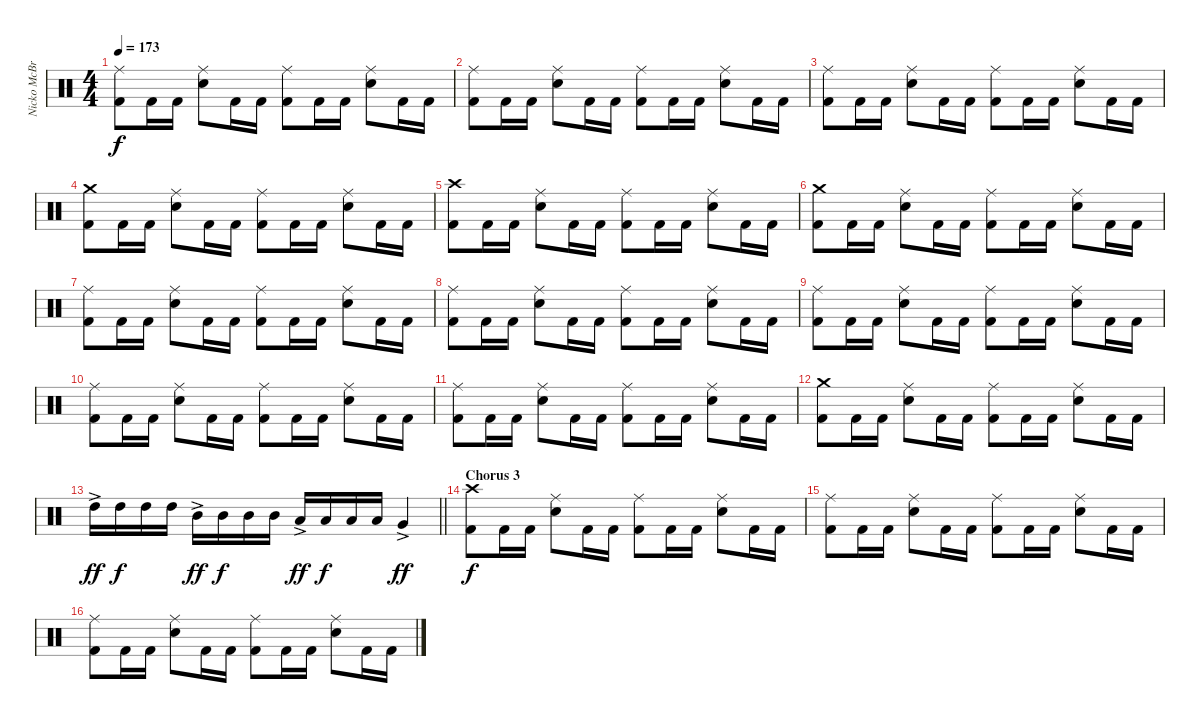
\track ("Nicko McBrain" "Nicko McBr") {instrument percussion}
\staff {score}
\articulation defaults
\ts (4 4)
\tempo 173
\clef neutral
\ks c
("Ride (middle)" "Kick (hit) 2").8{dy f} "Kick (hit) 2".16 "Kick (hit) 2".16 ("Ride (middle)" "Electric Snare (hit)").8 "Kick (hit) 2".16 "Kick (hit) 2".16 ("Ride (middle)" "Kick (hit) 2").8 "Kick (hit) 2".16 "Kick (hit) 2".16 ("Ride (middle)" "Electric Snare (hit)").8 "Kick (hit) 2".16 "Kick (hit) 2".16 |
("Ride (middle)" "Kick (hit) 2").8 "Kick (hit) 2".16 "Kick (hit) 2".16 ("Ride (middle)" "Electric Snare (hit)").8 "Kick (hit) 2".16 "Kick (hit) 2".16 ("Ride (middle)" "Kick (hit) 2").8 "Kick (hit) 2".16 "Kick (hit) 2".16 ("Ride (middle)" "Electric Snare (hit)").8 "Kick (hit) 2".16 "Kick (hit) 2".16 |
("Ride (middle)" "Kick (hit) 2").8 "Kick (hit) 2".16 "Kick (hit) 2".16 ("Ride (middle)" "Electric Snare (hit)").8 "Kick (hit) 2".16 "Kick (hit) 2".16 ("Ride (middle)" "Kick (hit) 2").8 "Kick (hit) 2".16 "Kick (hit) 2".16 ("Ride (middle)" "Electric Snare (hit)").8 "Kick (hit) 2".16 "Kick (hit) 2".16 |
("Crash medium (hit)" "Kick (hit) 2").8 "Kick (hit) 2".16 "Kick (hit) 2".16 ("Ride (middle)" "Electric Snare (hit)").8 "Kick (hit) 2".16 "Kick (hit) 2".16 ("Ride (middle)" "Kick (hit) 2").8 "Kick (hit) 2".16 "Kick (hit) 2".16 ("Ride (middle)" "Electric Snare (hit)").8 "Kick (hit) 2".16 "Kick (hit) 2".16 |
("Crash high (hit)" "Kick (hit) 2").8 "Kick (hit) 2".16 "Kick (hit) 2".16 ("Ride (middle)" "Electric Snare (hit)").8 "Kick (hit) 2".16 "Kick (hit) 2".16 ("Ride (middle)" "Kick (hit) 2").8 "Kick (hit) 2".16 "Kick (hit) 2".16 ("Ride (middle)" "Electric Snare (hit)").8 "Kick (hit) 2".16 "Kick (hit) 2".16 |
("Crash medium (hit)" "Kick (hit) 2").8 "Kick (hit) 2".16 "Kick (hit) 2".16 ("Ride (middle)" "Electric Snare (hit)").8 "Kick (hit) 2".16 "Kick (hit) 2".16 ("Ride (middle)" "Kick (hit) 2").8 "Kick (hit) 2".16 "Kick (hit) 2".16 ("Ride (middle)" "Electric Snare (hit)").8 "Kick (hit) 2".16 "Kick (hit) 2".16 |
("Ride (middle)" "Kick (hit) 2").8 "Kick (hit) 2".16 "Kick (hit) 2".16 ("Ride (middle)" "Electric Snare (hit)").8 "Kick (hit) 2".16 "Kick (hit) 2".16 ("Ride (middle)" "Kick (hit) 2").8 "Kick (hit) 2".16 "Kick (hit) 2".16 ("Ride (middle)" "Electric Snare (hit)").8 "Kick (hit) 2".16 "Kick (hit) 2".16 |
("Ride (middle)" "Kick (hit) 2").8 "Kick (hit) 2".16 "Kick (hit) 2".16 ("Ride (middle)" "Electric Snare (hit)").8 "Kick (hit) 2".16 "Kick (hit) 2".16 ("Ride (middle)" "Kick (hit) 2").8 "Kick (hit) 2".16 "Kick (hit) 2".16 ("Ride (middle)" "Electric Snare (hit)").8 "Kick (hit) 2".16 "Kick (hit) 2".16 |
("Ride (middle)" "Kick (hit) 2").8 "Kick (hit) 2".16 "Kick (hit) 2".16 ("Ride (middle)" "Electric Snare (hit)").8 "Kick (hit) 2".16 "Kick (hit) 2".16 ("Ride (middle)" "Kick (hit) 2").8 "Kick (hit) 2".16 "Kick (hit) 2".16 ("Ride (middle)" "Electric Snare (hit)").8 "Kick (hit) 2".16 "Kick (hit) 2".16 |
("Ride (middle)" "Kick (hit) 2").8 "Kick (hit) 2".16 "Kick (hit) 2".16 ("Ride (middle)" "Electric Snare (hit)").8 "Kick (hit) 2".16 "Kick (hit) 2".16 ("Ride (middle)" "Kick (hit) 2").8 "Kick (hit) 2".16 "Kick (hit) 2".16 ("Ride (middle)" "Electric Snare (hit)").8 "Kick (hit) 2".16 "Kick (hit) 2".16 |
("Ride (middle)" "Kick (hit) 2").8 "Kick (hit) 2".16 "Kick (hit) 2".16 ("Ride (middle)" "Electric Snare (hit)").8 "Kick (hit) 2".16 "Kick (hit) 2".16 ("Ride (middle)" "Kick (hit) 2").8 "Kick (hit) 2".16 "Kick (hit) 2".16 ("Ride (middle)" "Electric Snare (hit)").8 "Kick (hit) 2".16 "Kick (hit) 2".16 |
("Crash medium (hit)" "Kick (hit) 2").8 "Kick (hit) 2".16 "Kick (hit) 2".16 ("Ride (middle)" "Electric Snare (hit)").8 "Kick (hit) 2".16 "Kick (hit) 2".16 ("Ride (middle)" "Kick (hit) 2").8 "Kick (hit) 2".16 "Kick (hit) 2".16 ("Ride (middle)" "Electric Snare (hit)").8 "Kick (hit) 2".16 "Kick (hit) 2".16 |
\barLineRight lightlight "High Tom (hit)"{ac}.16{dy ff} "High Tom (hit)".16{dy f} "High Tom (hit)".16 "High Tom (hit)".16 "Mid Tom (hit)"{ac}.16{dy ff} "Mid Tom (hit)".16{dy f} "Mid Tom (hit)".16 "Mid Tom (hit)".16 "Low Tom (hit)"{ac}.16{dy ff} "Low Tom (hit)".16{dy f} "Low Tom (hit)".16 "Low Tom (hit)".16 "Very Low Tom (hit)"{ac}.4{dy ff}
|
\section ("" "Chorus 3")
("Crash high (hit)" "Kick (hit) 2").8{dy f} "Kick (hit) 2".16 "Kick (hit) 2".16 ("Ride (middle)" "Electric Snare (hit)").8 "Kick (hit) 2".16 "Kick (hit) 2".16 ("Ride (middle)" "Kick (hit) 2").8 "Kick (hit) 2".16 "Kick (hit) 2".16 ("Ride (middle)" "Electric Snare (hit)").8 "Kick (hit) 2".16 "Kick (hit) 2".16 |
("Ride (middle)" "Kick (hit) 2").8 "Kick (hit) 2".16 "Kick (hit) 2".16 ("Ride (middle)" "Electric Snare (hit)").8 "Kick (hit) 2".16 "Kick (hit) 2".16 ("Ride (middle)" "Kick (hit) 2").8 "Kick (hit) 2".16 "Kick (hit) 2".16 ("Ride (middle)" "Electric Snare (hit)").8 "Kick (hit) 2".16 "Kick (hit) 2".16 |
("Ride (middle)" "Kick (hit) 2").8 "Kick (hit) 2".16 "Kick (hit) 2".16 ("Ride (middle)" "Electric Snare (hit)").8 "Kick (hit) 2".16 "Kick (hit) 2".16 ("Ride (middle)" "Kick (hit) 2").8 "Kick (hit) 2".16 "Kick (hit) 2".16 ("Ride (middle)" "Electric Snare (hit)").8 "Kick (hit) 2".16 "Kick (hit) 2".16
